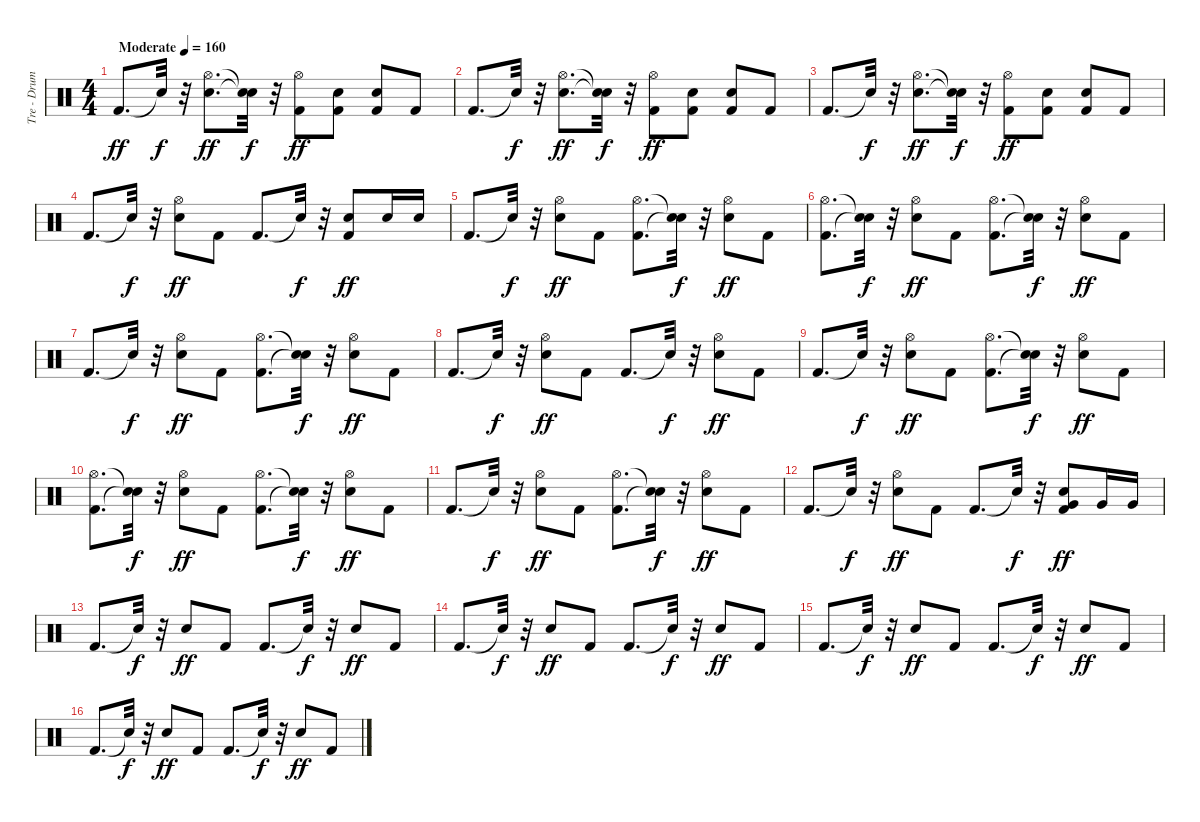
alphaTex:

\track ("Tre - Drums-2" "Tre - Drum") {instrument percussion}
\staff {score}
\articulation defaults
\ts (4 4)
\tempo (160 "Moderate")
\clef neutral
\ks c "Kick (hit) 2".8{d dy ff} "Snare (hit)"{t}.32{dy f}
r.32 ("Electric Snare (hit)" "Hi-Hat (open)").8{d dy ff} ("Snare (hit)"{t} "Snare (hit)"{t}).32{dy f} r.32 ("Kick (hit) 2" "Hi-Hat (open)").8{dy ff} ("Kick (hit) 2" "Electric Snare (hit)").8 ("Kick (hit) 2" "Electric Snare (hit)").8 "Kick (hit) 2".8 |
"Kick (hit) 2".8{d} "Snare (hit)"{t}.32{dy f} r.32 ("Electric Snare (hit)" "Hi-Hat (open)").8{d dy ff} ("Snare (hit)"{t} "Snare (hit)"{t}).32{dy f} r.32 ("Kick (hit) 2" "Hi-Hat (open)").8{dy ff} ("Kick (hit) 2" "Electric Snare (hit)").8 ("Kick (hit) 2" "Electric Snare (hit)").8 "Kick (hit) 2".8 |
"Kick (hit) 2".8{d} "Snare (hit)"{t}.32{dy f} r.32 ("Electric Snare (hit)" "Hi-Hat (open)").8{d dy ff} ("Snare (hit)"{t} "Snare (hit)"{t}).32{dy f} r.32 ("Kick (hit) 2" "Hi-Hat (open)").8{dy ff} ("Kick (hit) 2" "Electric Snare (hit)").8 ("Kick (hit) 2" "Electric Snare (hit)").8 "Kick (hit) 2".8 |
"Kick (hit) 2".8{d} "Snare (hit)"{t}.32{dy f} r.32 ("Electric Snare (hit)" "Hi-Hat (open)").8{dy ff} "Kick (hit) 2".8 "Kick (hit) 2".8{d} "Snare (hit)"{t}.32{dy f} r.32 ("Kick (hit) 2" "Electric Snare (hit)").8{dy ff} "Electric Snare (hit)".16 "Electric Snare (hit)".16 |
"Kick (hit) 2".8{d} "Snare (hit)"{t}.32{dy f} r.32 ("Electric Snare (hit)" "Hi-Hat (open)").8{dy ff} "Kick (hit) 2".8 ("Kick (hit) 2" "Hi-Hat (open)").8{d} ("Snare (hit)"{t} "Snare (hit)"{t}).32{dy f} r.32 ("Electric Snare (hit)" "Hi-Hat (open)").8{dy ff} "Kick (hit) 2".8 |
("Kick (hit) 2" "Hi-Hat (open)").8{d} ("Snare (hit)"{t} "Snare (hit)"{t}).32{dy f} r.32 ("Electric Snare (hit)" "Hi-Hat (open)").8{dy ff} "Kick (hit) 2".8 ("Kick (hit) 2" "Hi-Hat (open)").8{d} ("Snare (hit)"{t} "Snare (hit)"{t}).32{dy f} r.32 ("Electric Snare (hit)" "Hi-Hat (open)").8{dy ff} "Kick (hit) 2".8 |
"Kick (hit) 2".8{d} "Snare (hit)"{t}.32{dy f} r.32 ("Electric Snare (hit)" "Hi-Hat (open)").8{dy ff} "Kick (hit) 2".8 ("Kick (hit) 2" "Hi-Hat (open)").8{d} ("Snare (hit)"{t} "Snare (hit)"{t}).32{dy f} r.32 ("Electric Snare (hit)" "Hi-Hat (open)").8{dy ff} "Kick (hit) 2".8 |
"Kick (hit) 2".8{d} "Snare (hit)"{t}.32{dy f} r.32 ("Electric Snare (hit)" "Hi-Hat (open)").8{dy ff} "Kick (hit) 2".8 "Kick (hit) 2".8{d} "Snare (hit)"{t}.32{dy f} r.32 ("Electric Snare (hit)" "Hi-Hat (open)").8{dy ff} "Kick (hit) 2".8 |
"Kick (hit) 2".8{d} "Snare (hit)"{t}.32{dy f} r.32 ("Electric Snare (hit)" "Hi-Hat (open)").8{dy ff} "Kick (hit) 2".8 ("Kick (hit) 2" "Hi-Hat (open)").8{d} ("Snare (hit)"{t} "Snare (hit)"{t}).32{dy f} r.32 ("Electric Snare (hit)" "Hi-Hat (open)").8{dy ff} "Kick (hit) 2".8 |
("Kick (hit) 2" "Hi-Hat (open)").8{d} ("Snare (hit)"{t} "Snare (hit)"{t}).32{dy f} r.32 ("Electric Snare (hit)" "Hi-Hat (open)").8{dy ff} "Kick (hit) 2".8 ("Kick (hit) 2" "Hi-Hat (open)").8{d} ("Snare (hit)"{t} "Snare (hit)"{t}).32{dy f} r.32 ("Electric Snare (hit)" "Hi-Hat (open)").8{dy ff} "Kick (hit) 2".8 |
"Kick (hit) 2".8{d} "Snare (hit)"{t}.32{dy f} r.32 ("Electric Snare (hit)" "Hi-Hat (open)").8{dy ff} "Kick (hit) 2".8 ("Kick (hit) 2" "Hi-Hat (open)").8{d} ("Snare (hit)"{t} "Snare (hit)"{t}).32{dy f} r.32 ("Electric Snare (hit)" "Hi-Hat (open)").8{dy ff} "Kick (hit) 2".8 |
"Kick (hit) 2".8{d} "Snare (hit)"{t}.32{dy f} r.32 ("Electric Snare (hit)" "Hi-Hat (open)").8{dy ff} "Kick (hit) 2".8 "Kick (hit) 2".8{d} "Snare (hit)"{t}.32{dy f} r.32 ("Kick (hit) 2" "Electric Snare (hit)" "Very Low Tom (hit)").8{dy ff} "Very Low Tom (hit)".16 "Very Low Tom (hit)".16 |
"Kick (hit) 2".8{d} "Snare (hit)"{t}.32{dy f} r.32 "Electric Snare (hit)".8{dy ff} "Kick (hit) 2".8 "Kick (hit) 2".8{d} "Snare (hit)"{t}.32{dy f} r.32 "Electric Snare (hit)".8{dy ff} "Kick (hit) 2".8 |
"Kick (hit) 2".8{d} "Snare (hit)"{t}.32{dy f} r.32 "Electric Snare (hit)".8{dy ff} "Kick (hit) 2".8 "Kick (hit) 2".8{d} "Snare (hit)"{t}.32{dy f} r.32 "Electric Snare (hit)".8{dy ff} "Kick (hit) 2".8 |
"Kick (hit) 2".8{d} "Snare (hit)"{t}.32{dy f} r.32 "Electric Snare (hit)".8{dy ff} "Kick (hit) 2".8 "Kick (hit) 2".8{d} "Snare (hit)"{t}.32{dy f} r.32 "Electric Snare (hit)".8{dy ff} "Kick (hit) 2".8 |
"Kick (hit) 2".8{d} "Snare (hit)"{t}.32{dy f} r.32 "Electric Snare (hit)".8{dy ff} "Kick (hit) 2".8 "Kick (hit) 2".8{d} "Snare (hit)"{t}.32{dy f} r.32 "Electric Snare (hit)".8{dy ff} "Kick (hit) 2".8
